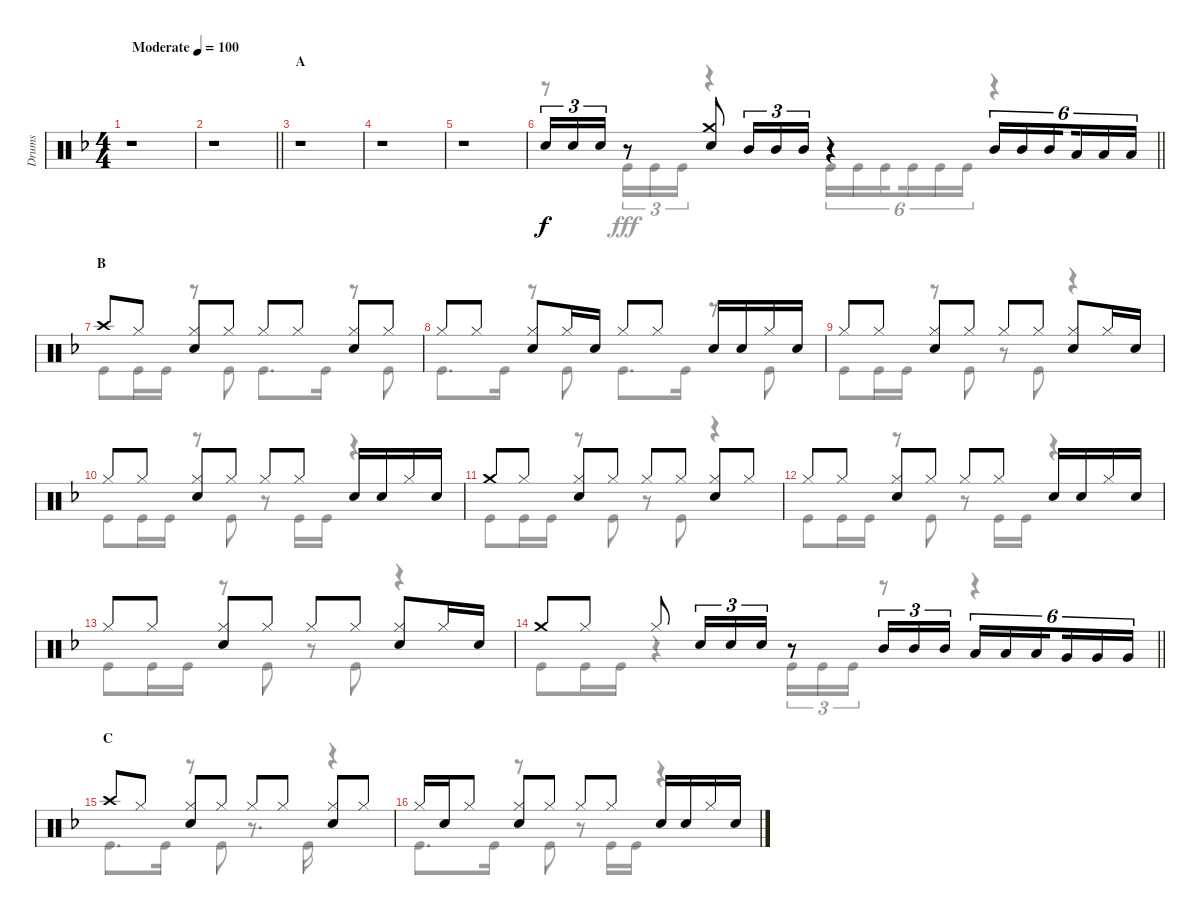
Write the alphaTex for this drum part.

\track ("Drums" "Drums") {instrument percussion}
\staff {score}
\articulation defaults
\voice
\ts (4 4)
\tempo (100 "Moderate")
\clef neutral
\ks f
r.1{dy f} |
\barLineRight lightlight
r.1 |
\section ("" "A")
r.1 |
r.1 |
r.1 |
\barLineRight lightlight "Snare (hit) 2".16{tu (3 2)} "Snare (hit) 2".16{tu (3 2)} "Snare (hit) 2".16{tu (3 2)}
r.8 ("Crash medium (hit)" "Snare (hit) 2").8 "Mid Tom (hit)".16{tu (3 2)} "Mid Tom (hit)".16{tu (3 2)} "Mid Tom (hit)".16{tu (3 2)} r.4 "Mid Tom (hit)".16{tu (6 4)} "Mid Tom (hit)".16{tu (6 4)} "Mid Tom (hit)".16{tu (6 4) beam splitsecondary} "Low Tom (hit)".16{tu (6 4)} "Low Tom (hit)".16{tu (6 4)} "Low Tom (hit)".16{tu (6 4)} |
\section ("" "B")
"Crash high (hit)".8 "Hi-Hat (closed)".8 ("Hi-Hat (closed)" "Snare (hit) 2").8 "Hi-Hat (closed)".8 "Hi-Hat (closed)".8 "Hi-Hat (closed)".8 ("Hi-Hat (closed)" "Snare (hit) 2").8 "Hi-Hat (closed)".8 |
"Hi-Hat (closed)".8 "Hi-Hat (closed)".8 ("Hi-Hat (closed)" "Snare (hit) 2").8 "Hi-Hat (closed)".16 "Snare (hit) 2".16 "Hi-Hat (closed)".8 "Hi-Hat (closed)".8 "Snare (hit) 2".16 "Snare (hit) 2".16 "Hi-Hat (closed)".16 "Snare (hit) 2".16 |
"Hi-Hat (closed)".8 "Hi-Hat (closed)".8 ("Hi-Hat (closed)" "Snare (hit) 2").8 "Hi-Hat (closed)".8 "Hi-Hat (closed)".8 "Hi-Hat (closed)".8 ("Hi-Hat (closed)" "Snare (hit) 2").8 "Hi-Hat (closed)".16 "Snare (hit) 2".16 |
"Hi-Hat (closed)".8 "Hi-Hat (closed)".8 ("Hi-Hat (closed)" "Snare (hit) 2").8 "Hi-Hat (closed)".8 "Hi-Hat (closed)".8 "Hi-Hat (closed)".8 "Snare (hit) 2".16 "Snare (hit) 2".16 "Hi-Hat (closed)".16 "Snare (hit) 2".16 |
"Crash medium (hit)".8 "Hi-Hat (closed)".8 ("Hi-Hat (closed)" "Snare (hit) 2").8 "Hi-Hat (closed)".8 "Hi-Hat (closed)".8 "Hi-Hat (closed)".8 ("Hi-Hat (closed)" "Snare (hit) 2").8 "Hi-Hat (closed)".8 |
"Hi-Hat (closed)".8 "Hi-Hat (closed)".8 ("Hi-Hat (closed)" "Snare (hit) 2").8 "Hi-Hat (closed)".8 "Hi-Hat (closed)".8 "Hi-Hat (closed)".8 "Snare (hit) 2".16 "Snare (hit) 2".16 "Hi-Hat (closed)".16 "Snare (hit) 2".16 |
"Hi-Hat (closed)".8 "Hi-Hat (closed)".8 ("Hi-Hat (closed)" "Snare (hit) 2").8 "Hi-Hat (closed)".8 "Hi-Hat (closed)".8 "Hi-Hat (closed)".8 ("Hi-Hat (closed)" "Snare (hit) 2").8 "Hi-Hat (closed)".16 "Snare (hit) 2".16 |
\barLineRight lightlight "Crash medium (hit)".8 "Hi-Hat (closed)".8 "Hi-Hat (closed)".8 "Snare (hit) 2".16{tu (3 2)} "Snare (hit) 2".16{tu (3 2)} "Snare (hit) 2".16{tu (3 2)}
r.8 "Mid Tom (hit)".16{tu (3 2)} "Mid Tom (hit)".16{tu (3 2)} "Mid Tom (hit)".16{tu (3 2)} "Low Tom (hit)".16{tu (6 4)} "Low Tom (hit)".16{tu (6 4)} "Low Tom (hit)".16{tu (6 4) beam splitsecondary} "Very Low Tom (hit)".16{tu (6 4)} "Very Low Tom (hit)".16{tu (6 4)} "Very Low Tom (hit)".16{tu (6 4)} |
\section ("" "C")
"Crash high (hit)".8 "Hi-Hat (closed)".8 ("Hi-Hat (closed)" "Snare (hit) 2").8 "Hi-Hat (closed)".8 "Hi-Hat (closed)".8 "Hi-Hat (closed)".8 ("Hi-Hat (closed)" "Snare (hit) 2").8 "Hi-Hat (closed)".8 |
"Hi-Hat (closed)".16 "Snare (hit) 2".16 "Hi-Hat (closed)".8 ("Hi-Hat (closed)" "Snare (hit) 2").8 "Hi-Hat (closed)".8 "Hi-Hat (closed)".8 "Hi-Hat (closed)".8 "Snare (hit) 2".16 "Snare (hit) 2".16 "Hi-Hat (closed)".16 "Snare (hit) 2".16
\voice
\clef neutral
\ottava regular
\simile none
\ks f
r.1{dy fff} |
\barLineRight lightlight
r.1 |
r.1 |
r.1 |
r.1 |
\barLineRight lightlight
r.8 "Kick (hit)".16{tu (3 2)} "Kick (hit)".16{tu (3 2)} "Kick (hit)".16{tu (3 2)} r.4 "Kick (hit)".16{tu (6 4)} "Kick (hit)".16{tu (6 4)} "Kick (hit)".16{tu (6 4) beam splitsecondary} "Kick (hit)".16{tu (6 4)} "Kick (hit)".16{tu (6 4)} "Kick (hit)".16{tu (6 4)} r.4 |
"Kick (hit)".8 "Kick (hit)".16 "Kick (hit)".16 r.8 "Kick (hit)".8 "Kick (hit)".8{d} "Kick (hit)".16 r.8 "Kick (hit)".8 |
"Kick (hit)".8{d} "Kick (hit)".16 r.8 "Kick (hit)".8 "Kick (hit)".8{d} "Kick (hit)".16 r.8 "Kick (hit)".8 |
"Kick (hit)".8 "Kick (hit)".16 "Kick (hit)".16 r.8 "Kick (hit)".8 r.8 "Kick (hit)".8 r.4 |
"Kick (hit)".8 "Kick (hit)".16 "Kick (hit)".16 r.8 "Kick (hit)".8 r.8 "Kick (hit)".16 "Kick (hit)".16 r.4 |
"Kick (hit)".8 "Kick (hit)".16 "Kick (hit)".16 r.8 "Kick (hit)".8 r.8 "Kick (hit)".8 r.4 |
"Kick (hit)".8 "Kick (hit)".16 "Kick (hit)".16 r.8 "Kick (hit)".8 r.8 "Kick (hit)".16 "Kick (hit)".16 r.4 |
"Kick (hit)".8 "Kick (hit)".16 "Kick (hit)".16 r.8 "Kick (hit)".8 r.8 "Kick (hit)".8 r.4 |
\barLineRight lightlight "Kick (hit)".8 "Kick (hit)".16 "Kick (hit)".16
r.4 "Kick (hit)".16{tu (3 2)} "Kick (hit)".16{tu (3 2)} "Kick (hit)".16{tu (3 2)} r.8 r.4 |
"Kick (hit)".8{d} "Kick (hit)".16 r.8 "Kick (hit)".8 r.8{d} "Kick (hit)".16 r.4 |
"Kick (hit)".8{d} "Kick (hit)".16 r.8 "Kick (hit)".8 r.8 "Kick (hit)".16 "Kick (hit)".16 r.4
